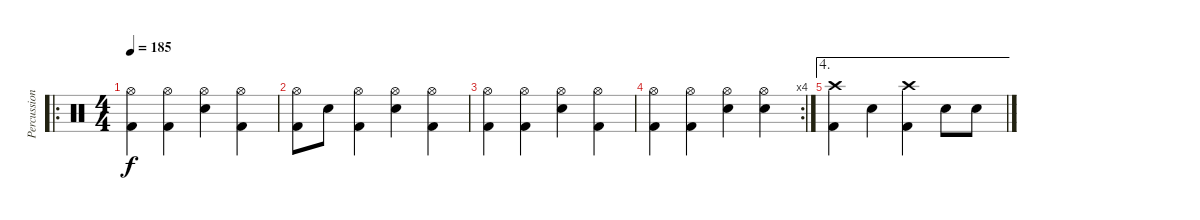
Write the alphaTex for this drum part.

\track ("Percussion" "Percussion") {instrument percussion}
\staff {score}
\articulation defaults
\ro
\ts (4 4)
\tempo 185
\clef neutral
\ks c
("Hi-Hat (open)" "Kick (hit) 2").4{dy f} ("Hi-Hat (open)" "Kick (hit) 2").4 ("Hi-Hat (open)" "Snare (hit) 2").4 ("Hi-Hat (open)" "Kick (hit) 2").4 |
("Hi-Hat (open)" "Kick (hit) 2").8 "Snare (hit) 2".8 ("Hi-Hat (open)" "Kick (hit) 2").4 ("Hi-Hat (open)" "Snare (hit) 2").4 ("Hi-Hat (open)" "Kick (hit) 2").4 |
("Hi-Hat (open)" "Kick (hit) 2").4 ("Hi-Hat (open)" "Kick (hit) 2").4 ("Hi-Hat (open)" "Snare (hit) 2").4 ("Hi-Hat (open)" "Kick (hit) 2").4 |
\rc 4
("Hi-Hat (open)" "Kick (hit) 2").4 ("Hi-Hat (open)" "Kick (hit) 2").4 ("Hi-Hat (open)" "Snare (hit) 2").4 ("Hi-Hat (open)" "Snare (hit) 2").4 |
\ae 4
("Crash high (hit)" "Kick (hit) 2").4 "Snare (hit) 2".4 ("Crash high (hit)" "Kick (hit) 2").4 "Snare (hit) 2".8 "Snare (hit) 2".8
